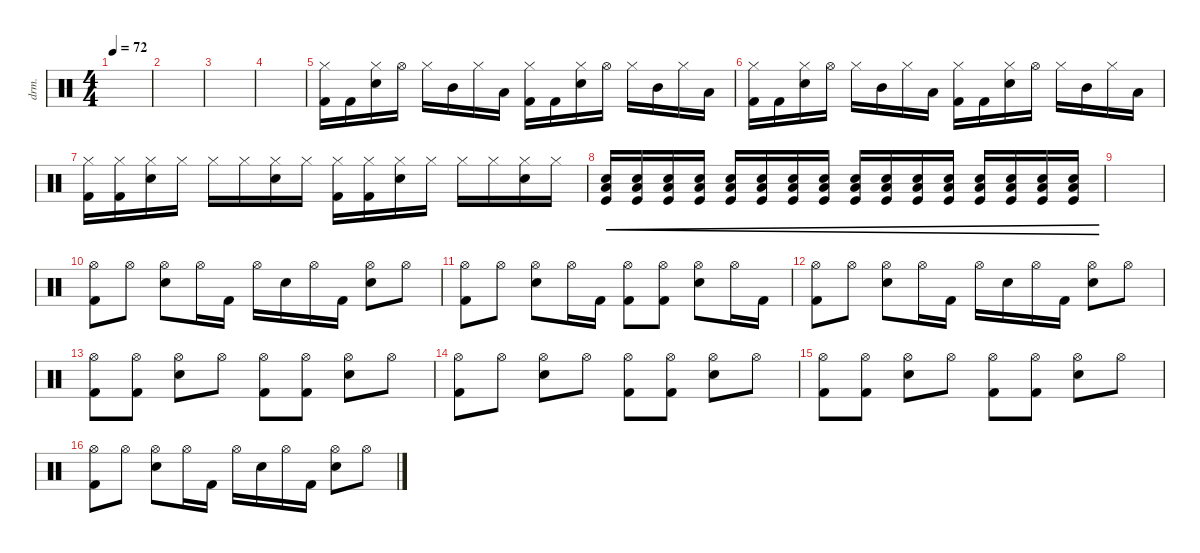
\defaultSystemsLayout 4
\hideDynamics
\bracketExtendMode nobrackets
\otherSystemsTrackNameOrientation horizontal
\track ("Drumkit" "drm.") {instrument percussion}
\staff {score}
\articulation defaults
\ts (4 4)
\tempo 72
\clef neutral
\ks c
|
|
|
|
("Kick (hit) 2" "Hi-Hat (closed)").16{beam Down} "Kick (hit) 2".16{beam Down} ("Snare (hit) 2" "Hi-Hat (closed)").16{beam Down} "Hi-Hat (open)".16{beam Down} "Hi-Hat (closed)".16{beam Down} "Mid Tom (hit)".16{beam Down} "Hi-Hat (closed)".16{beam Down} "Low Tom (hit)".16{beam Down} ("Kick (hit) 2" "Hi-Hat (closed)").16{beam Down} "Kick (hit) 2".16{beam Down} ("Snare (hit) 2" "Hi-Hat (closed)").16{beam Down} "Hi-Hat (open)".16{beam Down} "Hi-Hat (closed)".16{beam Down} "Mid Tom (hit)".16{beam Down} "Hi-Hat (closed)".16{beam Down} "Low Tom (hit)".16{beam Down} |
("Kick (hit) 2" "Hi-Hat (closed)").16{beam Down} "Kick (hit) 2".16{beam Down} ("Snare (hit) 2" "Hi-Hat (closed)").16{beam Down} "Hi-Hat (open)".16{beam Down} "Hi-Hat (closed)".16{beam Down} "Mid Tom (hit)".16{beam Down} "Hi-Hat (closed)".16{beam Down} "Low Tom (hit)".16{beam Down} ("Kick (hit) 2" "Hi-Hat (closed)").16{beam Down} "Kick (hit) 2".16{beam Down} ("Snare (hit) 2" "Hi-Hat (closed)").16{beam Down} "Hi-Hat (open)".16{beam Down} "Hi-Hat (closed)".16{beam Down} "Mid Tom (hit)".16{beam Down} "Hi-Hat (closed)".16{beam Down} "Low Tom (hit)".16{beam Down} |
("Kick (hit) 2" "Hi-Hat (closed)").16{beam Down} ("Kick (hit) 2" "Hi-Hat (closed)").16{beam Down} ("Snare (hit) 2" "Hi-Hat (closed)").16{beam Down} "Hi-Hat (closed)".16{beam Down} "Hi-Hat (closed)".16{beam Down} "Hi-Hat (closed)".16{beam Down} ("Snare (hit) 2" "Hi-Hat (closed)").16{beam Down} "Hi-Hat (closed)".16{beam Down} ("Kick (hit) 2" "Hi-Hat (closed)").16{beam Down} ("Kick (hit) 2" "Hi-Hat (closed)").16{beam Down} ("Snare (hit) 2" "Hi-Hat (closed)").16{beam Down} "Hi-Hat (closed)".16{beam Down} "Hi-Hat (closed)".16{beam Down} "Hi-Hat (closed)".16{beam Down} ("Snare (hit) 2" "Hi-Hat (closed)").16{beam Down} "Hi-Hat (closed)".16{beam Down} |
("Snare (hit) 2" "Kick (hit)" "Low Tom (hit)").16{cre beam Up} ("Snare (hit) 2" "Kick (hit)" "Low Tom (hit)").16{cre beam Up} ("Snare (hit) 2" "Kick (hit)" "Low Tom (hit)").16{cre beam Up} ("Snare (hit) 2" "Kick (hit)" "Low Tom (hit)").16{cre beam Up} ("Snare (hit) 2" "Kick (hit)" "Low Tom (hit)").16{cre beam Up} ("Snare (hit) 2" "Kick (hit)" "Low Tom (hit)").16{cre beam Up} ("Snare (hit) 2" "Kick (hit)" "Low Tom (hit)").16{cre beam Up} ("Snare (hit) 2" "Kick (hit)" "Low Tom (hit)").16{cre beam Up} ("Snare (hit) 2" "Kick (hit)" "Low Tom (hit)").16{cre beam Up} ("Snare (hit) 2" "Kick (hit)" "Low Tom (hit)").16{cre beam Up} ("Snare (hit) 2" "Kick (hit)" "Low Tom (hit)").16{cre beam Up} ("Snare (hit) 2" "Kick (hit)" "Low Tom (hit)").16{cre beam Up} ("Snare (hit) 2" "Kick (hit)" "Low Tom (hit)").16{cre beam Up} ("Snare (hit) 2" "Kick (hit)" "Low Tom (hit)").16{cre beam Up} ("Snare (hit) 2" "Kick (hit)" "Low Tom (hit)").16{cre beam Up} ("Snare (hit) 2" "Kick (hit)" "Low Tom (hit)").16{cre beam Up} |
|
("Hi-Hat (open)" "Kick (hit) 2").8{beam Down} "Hi-Hat (open)".8{beam Down} ("Hi-Hat (open)" "Snare (hit) 2").8{beam Down} "Hi-Hat (open)".16{beam Down} "Kick (hit) 2".16{beam Down} "Hi-Hat (open)".16{beam Down} "Snare (hit) 2".16{beam Down} "Hi-Hat (open)".16{beam Down} "Kick (hit) 2".16{beam Down} ("Snare (hit) 2" "Hi-Hat (open)").8{beam Down} "Hi-Hat (open)".8{beam Down} |
("Hi-Hat (open)" "Kick (hit) 2").8{beam Down} "Hi-Hat (open)".8{beam Down} ("Hi-Hat (open)" "Snare (hit) 2").8{beam Down} "Hi-Hat (open)".16{beam Down} "Kick (hit) 2".16{beam Down} ("Hi-Hat (open)" "Kick (hit) 2").8{beam Down} ("Hi-Hat (open)" "Kick (hit) 2").8{beam Down} ("Hi-Hat (open)" "Snare (hit) 2").8{beam Down} "Hi-Hat (open)".16{beam Down} "Kick (hit) 2".16{beam Down} |
("Hi-Hat (open)" "Kick (hit) 2").8{beam Down} "Hi-Hat (open)".8{beam Down} ("Hi-Hat (open)" "Snare (hit) 2").8{beam Down} "Hi-Hat (open)".16{beam Down} "Kick (hit) 2".16{beam Down} "Hi-Hat (open)".16{beam Down} "Snare (hit) 2".16{beam Down} "Hi-Hat (open)".16{beam Down} "Kick (hit) 2".16{beam Down} ("Snare (hit) 2" "Hi-Hat (open)").8{beam Down} "Hi-Hat (open)".8{beam Down} |
("Hi-Hat (open)" "Kick (hit) 2").8{beam Down} ("Hi-Hat (open)" "Kick (hit) 2").8{beam Down} ("Hi-Hat (open)" "Snare (hit) 2").8{beam Down} "Hi-Hat (open)".8{beam Down} ("Hi-Hat (open)" "Kick (hit) 2").8{beam Down} ("Hi-Hat (open)" "Kick (hit) 2").8{beam Down} ("Hi-Hat (open)" "Snare (hit) 2").8{beam Down} "Hi-Hat (open)".8{beam Down} |
("Hi-Hat (open)" "Kick (hit) 2").8{beam Down} "Hi-Hat (open)".8{beam Down} ("Hi-Hat (open)" "Snare (hit) 2").8{beam Down} "Hi-Hat (open)".8{beam Down} ("Hi-Hat (open)" "Kick (hit) 2").8{beam Down} ("Hi-Hat (open)" "Kick (hit) 2").8{beam Down} ("Hi-Hat (open)" "Snare (hit) 2").8{beam Down} "Hi-Hat (open)".8{beam Down} |
("Hi-Hat (open)" "Kick (hit) 2").8{beam Down} ("Hi-Hat (open)" "Kick (hit) 2").8{beam Down} ("Hi-Hat (open)" "Snare (hit) 2").8{beam Down} "Hi-Hat (open)".8{beam Down} ("Hi-Hat (open)" "Kick (hit) 2").8{beam Down} ("Hi-Hat (open)" "Kick (hit) 2").8{beam Down} ("Hi-Hat (open)" "Snare (hit) 2").8{beam Down} "Hi-Hat (open)".8{beam Down} |
("Hi-Hat (open)" "Kick (hit) 2").8{beam Down} "Hi-Hat (open)".8{beam Down} ("Hi-Hat (open)" "Snare (hit) 2").8{beam Down} "Hi-Hat (open)".16{beam Down} "Kick (hit) 2".16{beam Down} "Hi-Hat (open)".16{beam Down} "Snare (hit) 2".16{beam Down} "Hi-Hat (open)".16{beam Down} "Kick (hit) 2".16{beam Down} ("Snare (hit) 2" "Hi-Hat (open)").8{beam Down} "Hi-Hat (open)".8{beam Down}
